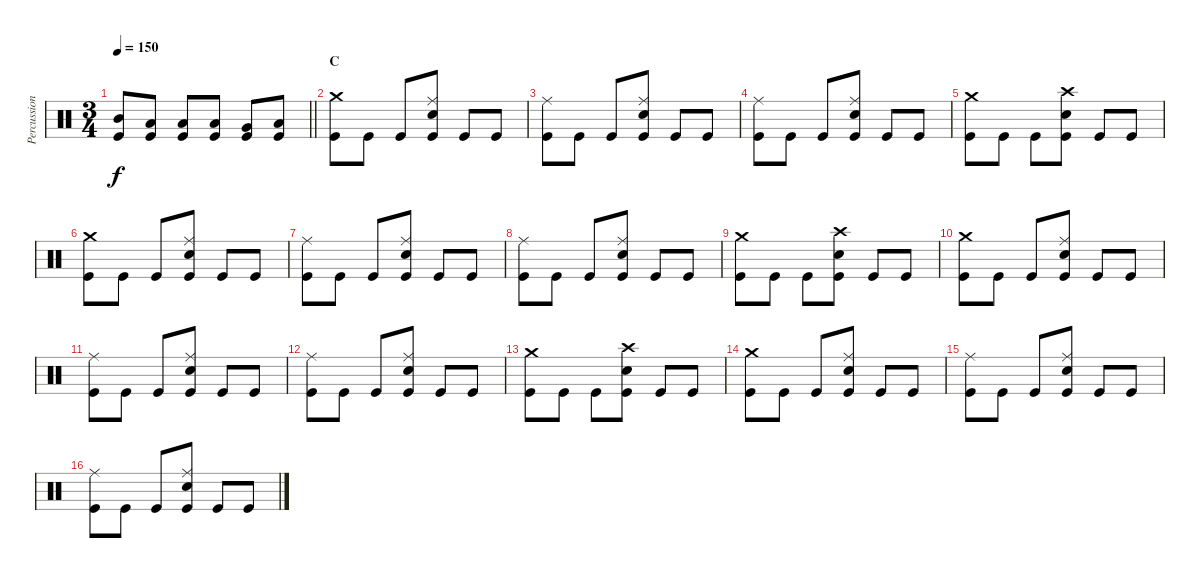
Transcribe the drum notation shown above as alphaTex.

\track ("Percussion" "Percussion") {instrument percussion}
\staff {score}
\articulation defaults
\ts (3 4)
\tempo 150
\clef neutral
\barLineRight lightlight
\ks c
("Mid Tom (hit)" "Kick (hit)").8{dy f} ("Low Tom (hit)" "Kick (hit)").8 ("Low Tom (hit)" "Kick (hit)").8 ("Low Tom (hit)" "Kick (hit)").8 ("Very Low Tom (hit)" "Kick (hit)").8 ("Low Floor Tom (hit)" "Kick (hit)").8 |
\section ("" "C")
("Crash medium (hit)" "Kick (hit)").8 "Kick (hit)".8 "Kick (hit)".8 ("Ride (middle)" "Snare (hit) 2" "Kick (hit)").8 "Kick (hit)".8 "Kick (hit)".8 |
("Ride (middle)" "Kick (hit)").8 "Kick (hit)".8 "Kick (hit)".8 ("Ride (middle)" "Snare (hit) 2" "Kick (hit)").8 "Kick (hit)".8 "Kick (hit)".8 |
("Ride (middle)" "Kick (hit)").8 "Kick (hit)".8 "Kick (hit)".8 ("Ride (middle)" "Snare (hit) 2" "Kick (hit)").8 "Kick (hit)".8 "Kick (hit)".8 |
("Crash medium (hit)" "Kick (hit)").8 "Kick (hit)".8 "Kick (hit)".8 ("Crash high (hit)" "Snare (hit) 2" "Kick (hit)").8 "Kick (hit)".8 "Kick (hit)".8 |
("Crash medium (hit)" "Kick (hit)").8 "Kick (hit)".8 "Kick (hit)".8 ("Ride (middle)" "Snare (hit) 2" "Kick (hit)").8 "Kick (hit)".8 "Kick (hit)".8 |
("Ride (middle)" "Kick (hit)").8 "Kick (hit)".8 "Kick (hit)".8 ("Ride (middle)" "Snare (hit) 2" "Kick (hit)").8 "Kick (hit)".8 "Kick (hit)".8 |
("Ride (middle)" "Kick (hit)").8 "Kick (hit)".8 "Kick (hit)".8 ("Ride (middle)" "Snare (hit) 2" "Kick (hit)").8 "Kick (hit)".8 "Kick (hit)".8 |
("Crash medium (hit)" "Kick (hit)").8 "Kick (hit)".8 "Kick (hit)".8 ("Crash high (hit)" "Snare (hit) 2" "Kick (hit)").8 "Kick (hit)".8 "Kick (hit)".8 |
("Crash medium (hit)" "Kick (hit)").8 "Kick (hit)".8 "Kick (hit)".8 ("Ride (middle)" "Snare (hit) 2" "Kick (hit)").8 "Kick (hit)".8 "Kick (hit)".8 |
("Ride (middle)" "Kick (hit)").8 "Kick (hit)".8 "Kick (hit)".8 ("Ride (middle)" "Snare (hit) 2" "Kick (hit)").8 "Kick (hit)".8 "Kick (hit)".8 |
("Ride (middle)" "Kick (hit)").8 "Kick (hit)".8 "Kick (hit)".8 ("Ride (middle)" "Snare (hit) 2" "Kick (hit)").8 "Kick (hit)".8 "Kick (hit)".8 |
("Crash medium (hit)" "Kick (hit)").8 "Kick (hit)".8 "Kick (hit)".8 ("Crash high (hit)" "Snare (hit) 2" "Kick (hit)").8 "Kick (hit)".8 "Kick (hit)".8 |
("Crash medium (hit)" "Kick (hit)").8 "Kick (hit)".8 "Kick (hit)".8 ("Ride (middle)" "Snare (hit) 2" "Kick (hit)").8 "Kick (hit)".8 "Kick (hit)".8 |
("Ride (middle)" "Kick (hit)").8 "Kick (hit)".8 "Kick (hit)".8 ("Ride (middle)" "Snare (hit) 2" "Kick (hit)").8 "Kick (hit)".8 "Kick (hit)".8 |
("Ride (middle)" "Kick (hit)").8 "Kick (hit)".8 "Kick (hit)".8 ("Ride (middle)" "Snare (hit) 2" "Kick (hit)").8 "Kick (hit)".8 "Kick (hit)".8
